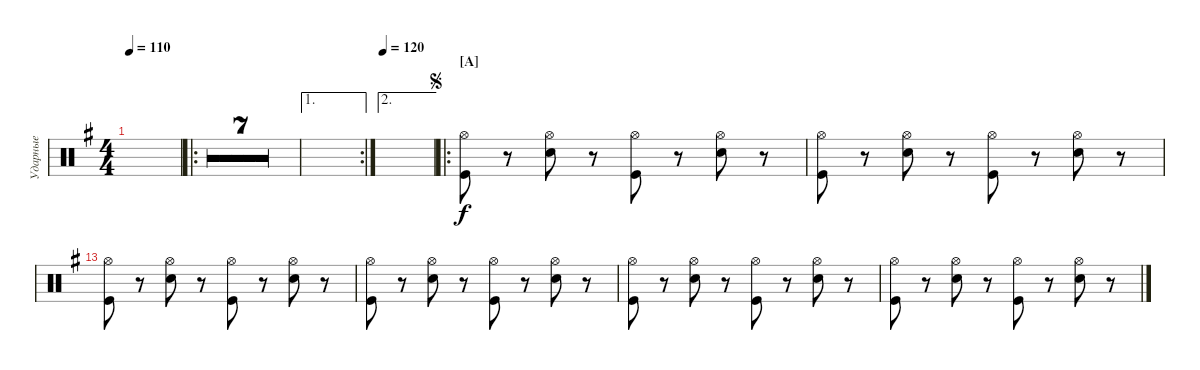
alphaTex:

\defaultSystemsLayout 4
\bracketExtendMode groupsimilarinstruments
\multiTrackTrackNamePolicy hidden
\firstSystemTrackNameMode fullname
\otherSystemsTrackNameMode fullname
\otherSystemsTrackNameOrientation horizontal
\defaultBarNumberDisplay FirstOfSystem
\track ("Ударные" "Drums") {multiBarRest instrument percussion}
\staff {score}
\articulation defaults
\ts (4 4)
\ac
\tempo 110
\clef neutral
\ks eminor
|
\ro
|
|
|
|
|
|
|
\ae 1
\rc 2
|
\ae 2
\tempo 120
|
\ro
\section ("A" "")
\jump segno
("Kick (hit)" "Hi-Hat (open)").8 r.8 ("Snare (hit) 2" "Hi-Hat (open)").8 r.8 ("Kick (hit)" "Hi-Hat (open)").8 r.8 ("Snare (hit) 2" "Hi-Hat (open)").8 r.8 |
("Kick (hit)" "Hi-Hat (open)").8 r.8 ("Snare (hit) 2" "Hi-Hat (open)").8 r.8 ("Kick (hit)" "Hi-Hat (open)").8 r.8 ("Snare (hit) 2" "Hi-Hat (open)").8 r.8 |
("Kick (hit)" "Hi-Hat (open)").8 r.8 ("Snare (hit) 2" "Hi-Hat (open)").8 r.8 ("Kick (hit)" "Hi-Hat (open)").8 r.8 ("Snare (hit) 2" "Hi-Hat (open)").8 r.8 |
("Kick (hit)" "Hi-Hat (open)").8 r.8 ("Snare (hit) 2" "Hi-Hat (open)").8 r.8 ("Kick (hit)" "Hi-Hat (open)").8 r.8 ("Snare (hit) 2" "Hi-Hat (open)").8 r.8 |
("Kick (hit)" "Hi-Hat (open)").8 r.8 ("Snare (hit) 2" "Hi-Hat (open)").8 r.8 ("Kick (hit)" "Hi-Hat (open)").8 r.8 ("Snare (hit) 2" "Hi-Hat (open)").8 r.8 |
("Kick (hit)" "Hi-Hat (open)").8 r.8 ("Snare (hit) 2" "Hi-Hat (open)").8 r.8 ("Kick (hit)" "Hi-Hat (open)").8 r.8 ("Snare (hit) 2" "Hi-Hat (open)").8 r.8
